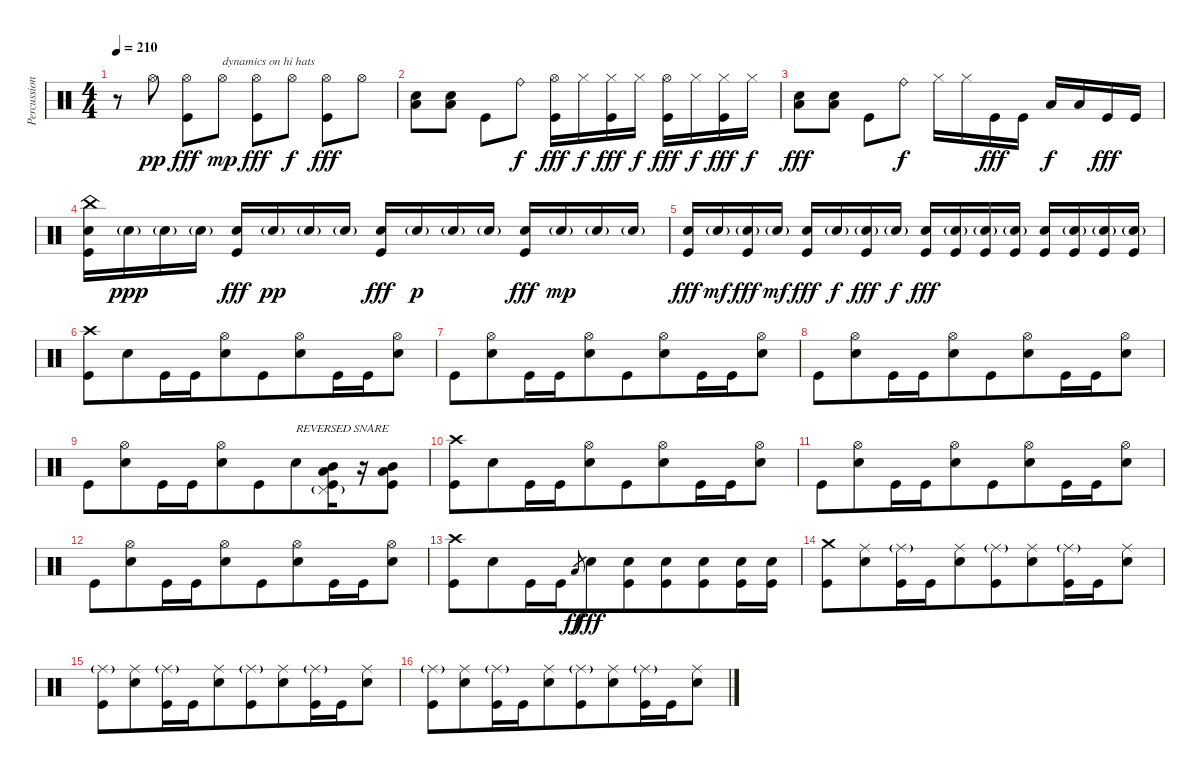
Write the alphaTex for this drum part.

\track ("Percussion" "Percussion") {instrument percussion}
\staff {score}
\articulation defaults
\ts (4 4)
\tempo 210
\clef neutral
\ks c
r.8{dy fff} "Hi-Hat (open)".8{dy pp} ("Hi-Hat (open)" "Kick (hit)").8{dy fff} "Hi-Hat (open)".8{txt "dynamics on hi hats" dy mp} ("Hi-Hat (open)" "Kick (hit)").8{dy fff} "Hi-Hat (open)".8{dy f} ("Hi-Hat (open)" "Kick (hit)").8{dy fff} "Hi-Hat (open)".8 |
("Snare (hit) 2" "Low Floor Tom (hit)").8 ("Snare (hit) 2" "Low Floor Tom (hit)").8 "Kick (hit)".8 "Ride (bell)".8{dy f} ("Hi-Hat (open)" "Kick (hit)").16{dy fff} "Hi-Hat (closed)".16{dy f} ("Hi-Hat (closed)" "Kick (hit)").16{dy fff} "Hi-Hat (closed)".16{dy f} ("Hi-Hat (open)" "Kick (hit)").16{dy fff} "Hi-Hat (closed)".16{dy f} ("Hi-Hat (closed)" "Kick (hit)").16{dy fff} "Hi-Hat (closed)".16{dy f} |
("Snare (hit) 2" "Low Floor Tom (hit)").8{dy fff} ("Snare (hit) 2" "Low Floor Tom (hit)").8 "Kick (hit)".8 "Ride (bell)".8{dy f} "Hi-Hat (closed)".16 "Hi-Hat (closed)".16 "Kick (hit)".16{dy fff} "Kick (hit)".16 "Low Floor Tom (hit)".16{dy f} "Low Floor Tom (hit)".16 "Kick (hit)".16{dy fff} "Kick (hit)".16 |
("China (hit)" "Snare (hit) 2" "Kick (hit)").16 "Snare (hit) 2"{g}.16{dy ppp} "Snare (hit) 2"{g}.16 "Snare (hit) 2"{g}.16 ("Snare (hit) 2" "Kick (hit)").16{dy fff} "Snare (hit) 2"{g}.16{dy pp} "Snare (hit) 2"{g}.16 "Snare (hit) 2"{g}.16 ("Snare (hit) 2" "Kick (hit)").16{dy fff} "Snare (hit) 2"{g}.16{dy p} "Snare (hit) 2"{g}.16 "Snare (hit) 2"{g}.16 ("Snare (hit) 2" "Kick (hit)").16{dy fff} "Snare (hit) 2"{g}.16{dy mp} "Snare (hit) 2"{g}.16 "Snare (hit) 2"{g}.16 |
("Snare (hit) 2" "Kick (hit)").16{dy fff} "Snare (hit) 2"{g}.16{dy mf} ("Snare (hit) 2"{g} "Kick (hit)").16{dy fff} "Snare (hit) 2"{g}.16{dy mf} ("Snare (hit) 2" "Kick (hit)").16{dy fff} "Snare (hit) 2"{g}.16{dy f} ("Snare (hit) 2"{g} "Kick (hit)").16{dy fff} "Snare (hit) 2"{g}.16{dy f} ("Snare (hit) 2" "Kick (hit)").16{dy fff} ("Snare (hit) 2"{g} "Kick (hit)").16 ("Snare (hit) 2"{g} "Kick (hit)").16 ("Snare (hit) 2"{g} "Kick (hit)").16 ("Snare (hit) 2" "Kick (hit)").16 ("Snare (hit) 2"{g} "Kick (hit)").16 ("Snare (hit) 2"{g} "Kick (hit)").16 ("Snare (hit) 2"{g} "Kick (hit)").16 |
("Crash high (hit)" "Kick (hit)").8 "Snare (hit) 2".8{beam merge} "Kick (hit)".16 "Kick (hit)".16 ("Hi-Hat (open)" "Snare (hit) 2").8{beam merge} "Kick (hit)".8 ("Hi-Hat (open)" "Snare (hit) 2").8{beam merge} "Kick (hit)".16 "Kick (hit)".16 ("Hi-Hat (open)" "Snare (hit) 2").8 |
"Kick (hit)".8 ("Hi-Hat (open)" "Snare (hit) 2").8{beam merge} "Kick (hit)".16 "Kick (hit)".16 ("Hi-Hat (open)" "Snare (hit) 2").8{beam merge} "Kick (hit)".8 ("Hi-Hat (open)" "Snare (hit) 2").8{beam merge} "Kick (hit)".16 "Kick (hit)".16 ("Hi-Hat (open)" "Snare (hit) 2").8 |
"Kick (hit)".8 ("Hi-Hat (open)" "Snare (hit) 2").8{beam merge} "Kick (hit)".16 "Kick (hit)".16 ("Hi-Hat (open)" "Snare (hit) 2").8{beam merge} "Kick (hit)".8 ("Hi-Hat (open)" "Snare (hit) 2").8{beam merge} "Kick (hit)".16 "Kick (hit)".16 ("Hi-Hat (open)" "Snare (hit) 2").8 |
"Kick (hit)".8 ("Hi-Hat (open)" "Snare (hit) 2").8{beam merge} "Kick (hit)".16 "Kick (hit)".16 ("Hi-Hat (open)" "Snare (hit) 2").8{beam merge} "Kick (hit)".8 "Snare (hit) 2".8{txt "REVERSED SNARE" beam merge} ("Pedal Hi-Hat (hit)"{g} "Low Floor Tom (hit)" "Mid Tom (hit)" "Kick (hit)").16 r.16 ("Low Floor Tom (hit)" "Mid Tom (hit)" "Kick (hit)").8 |
("Crash high (hit)" "Kick (hit)").8 "Snare (hit) 2".8{beam merge} "Kick (hit)".16 "Kick (hit)".16 ("Hi-Hat (open)" "Snare (hit) 2").8{beam merge} "Kick (hit)".8 ("Hi-Hat (open)" "Snare (hit) 2").8{beam merge} "Kick (hit)".16 "Kick (hit)".16 ("Hi-Hat (open)" "Snare (hit) 2").8 |
"Kick (hit)".8 ("Hi-Hat (open)" "Snare (hit) 2").8{beam merge} "Kick (hit)".16 "Kick (hit)".16 ("Hi-Hat (open)" "Snare (hit) 2").8{beam merge} "Kick (hit)".8 ("Hi-Hat (open)" "Snare (hit) 2").8{beam merge} "Kick (hit)".16 "Kick (hit)".16 ("Hi-Hat (open)" "Snare (hit) 2").8 |
"Kick (hit)".8 ("Hi-Hat (open)" "Snare (hit) 2").8{beam merge} "Kick (hit)".16 "Kick (hit)".16 ("Hi-Hat (open)" "Snare (hit) 2").8{beam merge} "Kick (hit)".8 ("Hi-Hat (open)" "Snare (hit) 2").8{beam merge} "Kick (hit)".16 "Kick (hit)".16 ("Hi-Hat (open)" "Snare (hit) 2").8 |
("Crash high (hit)" "Kick (hit)").8 "Snare (hit) 2".8{beam merge} "Kick (hit)".16 "Kick (hit)".16 "Low Floor Tom (hit)".8{gr dy ff} "Snare (hit) 2".8{dy fff beam merge} ("Snare (hit) 2" "Kick (hit)").8 ("Snare (hit) 2" "Kick (hit)").8{beam merge} ("Snare (hit) 2" "Kick (hit)").8 ("Snare (hit) 2" "Kick (hit)").16 ("Snare (hit) 2" "Kick (hit)").16 |
("Crash medium (hit)" "Kick (hit)").8 ("Ride (middle)" "Snare (hit) 2").8{beam merge} ("Ride (middle)"{g} "Kick (hit)").16 "Kick (hit)".16 ("Ride (middle)" "Snare (hit) 2").8{beam merge} ("Ride (middle)"{g} "Kick (hit)").8 ("Ride (middle)" "Snare (hit) 2").8{beam merge} ("Ride (middle)"{g} "Kick (hit)").16 "Kick (hit)".16 ("Ride (middle)" "Snare (hit) 2").8 |
("Ride (middle)"{g} "Kick (hit)").8 ("Ride (middle)" "Snare (hit) 2").8{beam merge} ("Ride (middle)"{g} "Kick (hit)").16 "Kick (hit)".16 ("Ride (middle)" "Snare (hit) 2").8{beam merge} ("Ride (middle)"{g} "Kick (hit)").8 ("Ride (middle)" "Snare (hit) 2").8{beam merge} ("Ride (middle)"{g} "Kick (hit)").16 "Kick (hit)".16 ("Ride (middle)" "Snare (hit) 2").8 |
("Ride (middle)"{g} "Kick (hit)").8 ("Ride (middle)" "Snare (hit) 2").8{beam merge} ("Ride (middle)"{g} "Kick (hit)").16 "Kick (hit)".16 ("Ride (middle)" "Snare (hit) 2").8{beam merge} ("Ride (middle)"{g} "Kick (hit)").8 ("Ride (middle)" "Snare (hit) 2").8{beam merge} ("Ride (middle)"{g} "Kick (hit)").16 "Kick (hit)".16 ("Ride (middle)" "Snare (hit) 2").8
